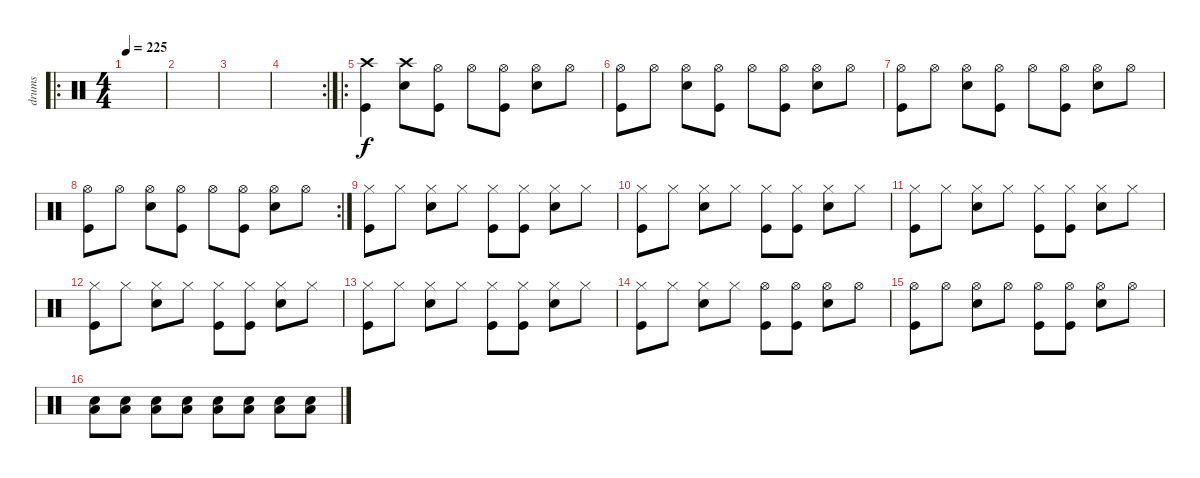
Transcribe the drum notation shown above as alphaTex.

\track ("drums" "drums") {instrument percussion}
\staff {score}
\articulation defaults
\ro
\ts (4 4)
\tempo 225
\clef neutral
\ks c
|
|
|
\rc 2
|
\ro
("Crash high (hit)" "Kick (hit)").4 ("Crash high (hit)" "Snare (hit) 2").8 ("Hi-Hat (open)" "Kick (hit)").8 "Hi-Hat (open)".8 ("Hi-Hat (open)" "Kick (hit)").8 ("Hi-Hat (open)" "Snare (hit) 2").8 "Hi-Hat (open)".8 |
("Hi-Hat (open)" "Kick (hit)").8 "Hi-Hat (open)".8 ("Hi-Hat (open)" "Snare (hit) 2").8 ("Hi-Hat (open)" "Kick (hit)").8 "Hi-Hat (open)".8 ("Hi-Hat (open)" "Kick (hit)").8 ("Hi-Hat (open)" "Snare (hit) 2").8 "Hi-Hat (open)".8 |
("Hi-Hat (open)" "Kick (hit)").8 "Hi-Hat (open)".8 ("Hi-Hat (open)" "Snare (hit) 2").8 ("Hi-Hat (open)" "Kick (hit)").8 "Hi-Hat (open)".8 ("Hi-Hat (open)" "Kick (hit)").8 ("Hi-Hat (open)" "Snare (hit) 2").8 "Hi-Hat (open)".8 |
\rc 2
("Hi-Hat (open)" "Kick (hit)").8 "Hi-Hat (open)".8 ("Hi-Hat (open)" "Snare (hit) 2").8 ("Hi-Hat (open)" "Kick (hit)").8 "Hi-Hat (open)".8 ("Hi-Hat (open)" "Kick (hit)").8 ("Hi-Hat (open)" "Snare (hit) 2").8 "Hi-Hat (open)".8 |
("Hi-Hat (closed)" "Kick (hit)").8 "Hi-Hat (closed)".8 ("Hi-Hat (closed)" "Snare (hit) 2").8 "Hi-Hat (closed)".8 ("Hi-Hat (closed)" "Kick (hit)").8 ("Hi-Hat (closed)" "Kick (hit)").8 ("Hi-Hat (closed)" "Snare (hit) 2").8 "Hi-Hat (closed)".8 |
("Hi-Hat (closed)" "Kick (hit)").8 "Hi-Hat (closed)".8 ("Hi-Hat (closed)" "Snare (hit) 2").8 "Hi-Hat (closed)".8 ("Hi-Hat (closed)" "Kick (hit)").8 ("Hi-Hat (closed)" "Kick (hit)").8 ("Hi-Hat (closed)" "Snare (hit) 2").8 "Hi-Hat (closed)".8 |
("Hi-Hat (closed)" "Kick (hit)").8 "Hi-Hat (closed)".8 ("Hi-Hat (closed)" "Snare (hit) 2").8 "Hi-Hat (closed)".8 ("Hi-Hat (closed)" "Kick (hit)").8 ("Hi-Hat (closed)" "Kick (hit)").8 ("Hi-Hat (closed)" "Snare (hit) 2").8 "Hi-Hat (closed)".8 |
("Hi-Hat (closed)" "Kick (hit)").8 "Hi-Hat (closed)".8 ("Hi-Hat (closed)" "Snare (hit) 2").8 "Hi-Hat (closed)".8 ("Hi-Hat (closed)" "Kick (hit)").8 ("Hi-Hat (closed)" "Kick (hit)").8 ("Hi-Hat (closed)" "Snare (hit) 2").8 "Hi-Hat (closed)".8 |
("Hi-Hat (closed)" "Kick (hit)").8 "Hi-Hat (closed)".8 ("Hi-Hat (closed)" "Snare (hit) 2").8 "Hi-Hat (closed)".8 ("Hi-Hat (closed)" "Kick (hit)").8 ("Hi-Hat (closed)" "Kick (hit)").8 ("Hi-Hat (closed)" "Snare (hit) 2").8 "Hi-Hat (closed)".8 |
("Hi-Hat (closed)" "Kick (hit)").8 "Hi-Hat (closed)".8 ("Hi-Hat (closed)" "Snare (hit) 2").8 "Hi-Hat (closed)".8 ("Hi-Hat (open)" "Kick (hit)").8 ("Hi-Hat (open)" "Kick (hit)").8 ("Hi-Hat (open)" "Snare (hit) 2").8 "Hi-Hat (open)".8 |
("Hi-Hat (open)" "Kick (hit)").8 "Hi-Hat (open)".8 ("Hi-Hat (open)" "Snare (hit) 2").8 "Hi-Hat (open)".8 ("Hi-Hat (open)" "Kick (hit)").8 ("Hi-Hat (open)" "Kick (hit)").8 ("Hi-Hat (open)" "Snare (hit) 2").8 "Hi-Hat (open)".8 |
("Snare (hit) 2" "Low Tom (hit)").8 ("Snare (hit) 2" "Low Tom (hit)").8 ("Snare (hit) 2" "Low Tom (hit)").8 ("Snare (hit) 2" "Low Tom (hit)").8 ("Snare (hit) 2" "Low Tom (hit)").8 ("Snare (hit) 2" "Low Tom (hit)").8 ("Snare (hit) 2" "Low Tom (hit)").8 ("Snare (hit) 2" "Low Tom (hit)").8
